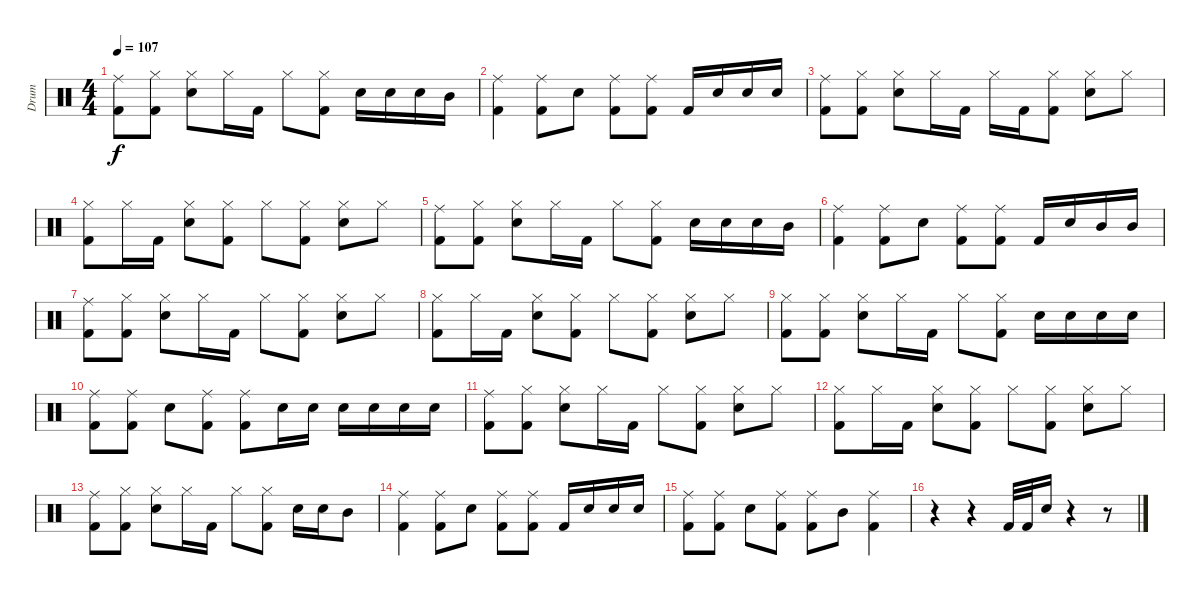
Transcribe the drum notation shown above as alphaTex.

\track ("Drum" "Drum") {instrument percussion}
\staff {score}
\articulation defaults
\ts (4 4)
\tempo 107
\clef neutral
\ks c
("Ride (middle)" "Kick (hit) 2").8{dy f} ("Hi-Hat (closed)" "Kick (hit) 2").8 ("Hi-Hat (closed)" "Snare (hit) 2").8 "Hi-Hat (closed)".16 "Kick (hit) 2".16 "Hi-Hat (closed)".8 ("Hi-Hat (closed)" "Kick (hit) 2").8 "Snare (hit) 2".16 "Snare (hit) 2".16 "Snare (hit) 2".16 "Mid Tom (hit)".16 |
("Ride (middle)" "Kick (hit) 2").4 ("Ride (middle)" "Kick (hit) 2").8 "Snare (hit) 2".8 ("Ride (middle)" "Kick (hit) 2").8 ("Ride (middle)" "Kick (hit) 2").8 "Kick (hit) 2".16 "Snare (hit) 2".16 "Snare (hit) 2".16 "Snare (hit) 2".16 |
("Ride (middle)" "Kick (hit) 2").8 ("Hi-Hat (closed)" "Kick (hit) 2").8 ("Hi-Hat (closed)" "Snare (hit) 2").8 "Hi-Hat (closed)".16 "Kick (hit) 2".16 "Hi-Hat (closed)".16 "Kick (hit) 2".16 ("Hi-Hat (closed)" "Kick (hit) 2").8 ("Hi-Hat (closed)" "Snare (hit) 2").8 "Hi-Hat (closed)".8 |
("Hi-Hat (closed)" "Kick (hit) 2").8 "Hi-Hat (closed)".16 "Kick (hit) 2".16 ("Hi-Hat (closed)" "Snare (hit) 2").8 ("Hi-Hat (closed)" "Kick (hit) 2").8 "Hi-Hat (closed)".8 ("Hi-Hat (closed)" "Kick (hit) 2").8 ("Hi-Hat (closed)" "Snare (hit) 2").8 "Hi-Hat (closed)".8 |
("Ride (middle)" "Kick (hit) 2").8 ("Hi-Hat (closed)" "Kick (hit) 2").8 ("Hi-Hat (closed)" "Snare (hit) 2").8 "Hi-Hat (closed)".16 "Kick (hit) 2".16 "Hi-Hat (closed)".8 ("Hi-Hat (closed)" "Kick (hit) 2").8 "Snare (hit) 2".16 "Snare (hit) 2".16 "Snare (hit) 2".16 "Mid Tom (hit)".16 |
("Ride (middle)" "Kick (hit) 2").4 ("Ride (middle)" "Kick (hit) 2").8 "Snare (hit) 2".8 ("Ride (middle)" "Kick (hit) 2").8 ("Ride (middle)" "Kick (hit) 2").8 "Kick (hit) 2".16 "Snare (hit) 2".16 "Mid Tom (hit)".16 "Mid Tom (hit)".16 |
("Ride (middle)" "Kick (hit) 2").8 ("Hi-Hat (closed)" "Kick (hit) 2").8 ("Hi-Hat (closed)" "Snare (hit) 2").8 "Hi-Hat (closed)".16 "Kick (hit) 2".16 "Hi-Hat (closed)".8 ("Hi-Hat (closed)" "Kick (hit) 2").8 ("Hi-Hat (closed)" "Snare (hit) 2").8 "Hi-Hat (closed)".8 |
("Hi-Hat (closed)" "Kick (hit) 2").8 "Hi-Hat (closed)".16 "Kick (hit) 2".16 ("Hi-Hat (closed)" "Snare (hit) 2").8 ("Hi-Hat (closed)" "Kick (hit) 2").8 "Hi-Hat (closed)".8 ("Hi-Hat (closed)" "Kick (hit) 2").8 ("Hi-Hat (closed)" "Snare (hit) 2").8 "Hi-Hat (closed)".8 |
("Hi-Hat (closed)" "Kick (hit) 2").8 ("Hi-Hat (closed)" "Kick (hit) 2").8 ("Hi-Hat (closed)" "Snare (hit) 2").8 "Hi-Hat (closed)".16 "Kick (hit) 2".16 "Hi-Hat (closed)".8 ("Hi-Hat (closed)" "Kick (hit) 2").8 "Snare (hit) 2".16 "Snare (hit) 2".16 "Snare (hit) 2".16 "Snare (hit) 2".16 |
("Ride (middle)" "Kick (hit) 2").8 ("Ride (middle)" "Kick (hit) 2").8 "Snare (hit) 2".8 ("Ride (middle)" "Kick (hit) 2").8 ("Ride (middle)" "Kick (hit) 2").8 "Snare (hit) 2".16 "Snare (hit) 2".16 "Snare (hit) 2".16 "Snare (hit) 2".16 "Snare (hit) 2".16 "Snare (hit) 2".16 |
("Ride (middle)" "Kick (hit) 2").8 ("Hi-Hat (closed)" "Kick (hit) 2").8 ("Hi-Hat (closed)" "Snare (hit) 2").8 "Hi-Hat (closed)".16 "Kick (hit) 2".16 "Hi-Hat (closed)".8 ("Hi-Hat (closed)" "Kick (hit) 2").8 ("Hi-Hat (closed)" "Snare (hit) 2").8 "Hi-Hat (closed)".8 |
("Hi-Hat (closed)" "Kick (hit) 2").8 "Hi-Hat (closed)".16 "Kick (hit) 2".16 ("Hi-Hat (closed)" "Snare (hit) 2").8 ("Hi-Hat (closed)" "Kick (hit) 2").8 "Hi-Hat (closed)".8 ("Hi-Hat (closed)" "Kick (hit) 2").8 ("Hi-Hat (closed)" "Snare (hit) 2").8 "Hi-Hat (closed)".8 |
("Ride (middle)" "Kick (hit) 2").8 ("Hi-Hat (closed)" "Kick (hit) 2").8 ("Hi-Hat (closed)" "Snare (hit) 2").8 "Hi-Hat (closed)".16 "Kick (hit) 2".16 "Hi-Hat (closed)".8 ("Hi-Hat (closed)" "Kick (hit) 2").8 "Snare (hit) 2".16 "Snare (hit) 2".16 "Mid Tom (hit)".8 |
("Ride (middle)" "Kick (hit) 2").4 ("Ride (middle)" "Kick (hit) 2").8 "Snare (hit) 2".8 ("Ride (middle)" "Kick (hit) 2").8 ("Ride (middle)" "Kick (hit) 2").8 "Kick (hit) 2".16 "Snare (hit) 2".16 "Snare (hit) 2".16 "Snare (hit) 2".16 |
("Ride (middle)" "Kick (hit) 2").8 ("Ride (middle)" "Kick (hit) 2").8 "Snare (hit) 2".8 ("Ride (middle)" "Kick (hit) 2").8 ("Ride (middle)" "Kick (hit) 2").8 "Mid Tom (hit)".8 ("Ride (middle)" "Kick (hit) 2").4 |
r.4 r.4 "Kick (hit) 2".32 "Kick (hit) 2".32 "Snare (hit) 2".16 r.4 r.8
